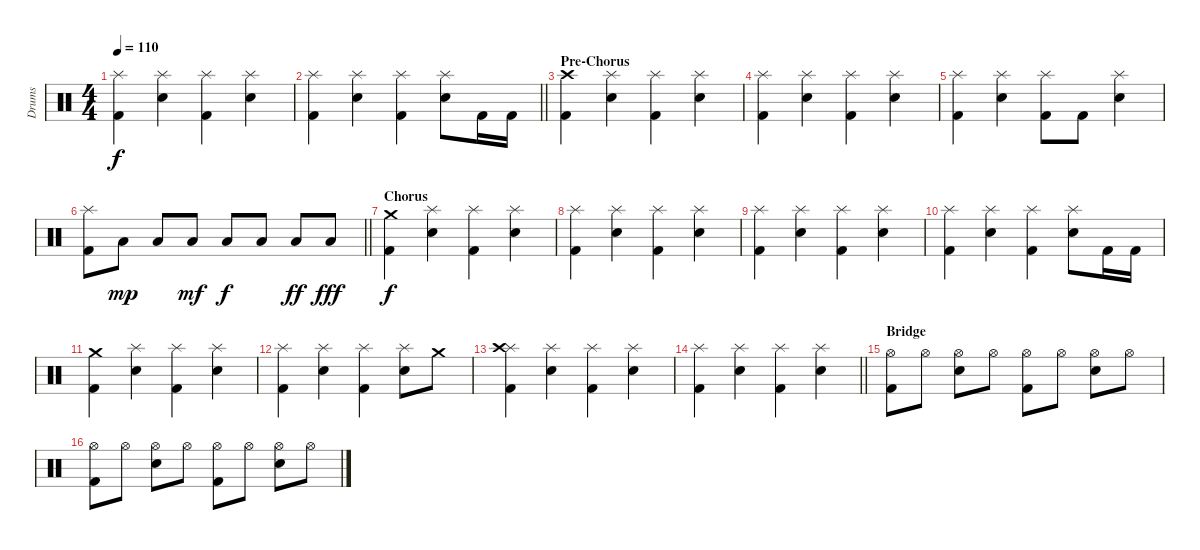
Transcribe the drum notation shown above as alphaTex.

\track ("Drums" "Drums") {instrument percussion}
\staff {score}
\articulation defaults
\ts (4 4)
\tempo 110
\clef neutral
\ks c
("Splash (hit)" "Kick (hit) 2").4{dy f} ("Splash (hit)" "Snare (hit) 2").4 ("Splash (hit)" "Kick (hit) 2").4 ("Splash (hit)" "Snare (hit) 2").4 |
\barLineRight lightlight
("Splash (hit)" "Kick (hit) 2").4 ("Splash (hit)" "Snare (hit) 2").4 ("Splash (hit)" "Kick (hit) 2").4 ("Splash (hit)" "Snare (hit) 2").8 "Kick (hit) 2".16 "Kick (hit) 2".16 |
\section ("" "Pre-Chorus")
("Crash high (hit)" "Kick (hit) 2").4 ("Splash (hit)" "Snare (hit) 2").4 ("Splash (hit)" "Kick (hit) 2").4 ("Splash (hit)" "Snare (hit) 2").4 |
("Splash (hit)" "Kick (hit) 2").4 ("Splash (hit)" "Snare (hit) 2").4 ("Splash (hit)" "Kick (hit) 2").4 ("Splash (hit)" "Snare (hit) 2").4 |
("Splash (hit)" "Kick (hit) 2").4 ("Splash (hit)" "Snare (hit) 2").4 ("Splash (hit)" "Kick (hit) 2").8 "Kick (hit) 2".8 ("Splash (hit)" "Snare (hit) 2").4 |
\barLineRight lightlight
("Splash (hit)" "Kick (hit) 2").8 "Low Floor Tom (hit)".8{dy mp} "Low Floor Tom (hit)".8 "Low Floor Tom (hit)".8{dy mf} "Low Floor Tom (hit)".8{dy f} "Low Floor Tom (hit)".8 "Low Floor Tom (hit)".8{dy ff} "Low Floor Tom (hit)".8{dy fff} |
\section ("" "Chorus")
("Crash medium (hit)" "Kick (hit) 2").4{dy f} ("Splash (hit)" "Snare (hit) 2").4 ("Splash (hit)" "Kick (hit) 2").4 ("Splash (hit)" "Snare (hit) 2").4 |
("Splash (hit)" "Kick (hit) 2").4 ("Splash (hit)" "Snare (hit) 2").4 ("Splash (hit)" "Kick (hit) 2").4 ("Splash (hit)" "Snare (hit) 2").4 |
("Splash (hit)" "Kick (hit) 2").4 ("Splash (hit)" "Snare (hit) 2").4 ("Splash (hit)" "Kick (hit) 2").4 ("Splash (hit)" "Snare (hit) 2").4 |
("Splash (hit)" "Kick (hit) 2").4 ("Splash (hit)" "Snare (hit) 2").4 ("Splash (hit)" "Kick (hit) 2").4 ("Splash (hit)" "Snare (hit) 2").8 "Kick (hit) 2".16 "Kick (hit) 2".16 |
("Crash medium (hit)" "Kick (hit) 2").4 ("Splash (hit)" "Snare (hit) 2").4 ("Splash (hit)" "Kick (hit) 2").4 ("Splash (hit)" "Snare (hit) 2").4 |
("Splash (hit)" "Kick (hit) 2").4 ("Splash (hit)" "Snare (hit) 2").4 ("Splash (hit)" "Kick (hit) 2").4 ("Splash (hit)" "Snare (hit) 2").8 "Crash medium (hit)".8 |
("Splash (hit)" "Crash high (hit)" "Kick (hit) 2").4 ("Splash (hit)" "Snare (hit) 2").4 ("Splash (hit)" "Kick (hit) 2").4 ("Splash (hit)" "Snare (hit) 2").4 |
\barLineRight lightlight
("Splash (hit)" "Kick (hit) 2").4 ("Splash (hit)" "Snare (hit) 2").4 ("Splash (hit)" "Kick (hit) 2").4 ("Splash (hit)" "Snare (hit) 2").4 |
\section ("" "Bridge")
("Hi-Hat (open)" "Kick (hit) 2").8 "Hi-Hat (open)".8 ("Hi-Hat (open)" "Snare (hit) 2").8 "Hi-Hat (open)".8 ("Hi-Hat (open)" "Kick (hit) 2").8 "Hi-Hat (open)".8 ("Hi-Hat (open)" "Snare (hit) 2").8 "Hi-Hat (open)".8 |
("Hi-Hat (open)" "Kick (hit) 2").8 "Hi-Hat (open)".8 ("Hi-Hat (open)" "Snare (hit) 2").8 "Hi-Hat (open)".8 ("Hi-Hat (open)" "Kick (hit) 2").8 "Hi-Hat (open)".8 ("Hi-Hat (open)" "Snare (hit) 2").8 "Hi-Hat (open)".8
